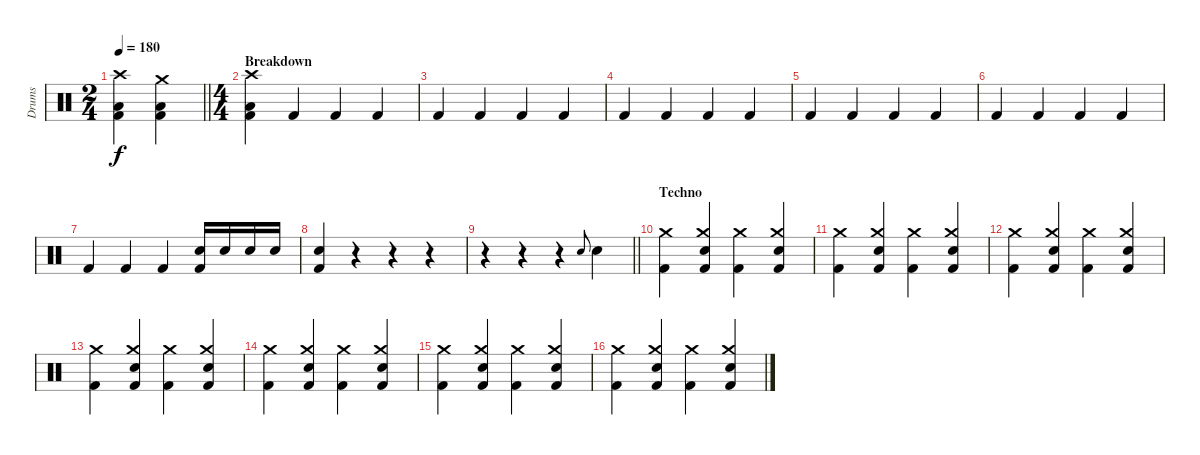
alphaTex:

\track ("Drums" "Drums") {instrument percussion}
\staff {score}
\articulation defaults
\ts (2 4)
\tempo 180
\clef neutral
\barLineRight lightlight
\ks c
("Crash high (hit)" "Low Floor Tom (hit)" "Kick (hit) 2").4{dy f} ("Crash medium (hit)" "Low Floor Tom (hit)" "Kick (hit) 2").4 |
\ts (4 4)
\section ("" "Breakdown")
("Crash high (hit)" "Low Floor Tom (hit)" "Kick (hit) 2").4 "Kick (hit) 2".4 "Kick (hit) 2".4 "Kick (hit) 2".4 |
"Kick (hit) 2".4 "Kick (hit) 2".4 "Kick (hit) 2".4 "Kick (hit) 2".4 |
"Kick (hit) 2".4 "Kick (hit) 2".4 "Kick (hit) 2".4 "Kick (hit) 2".4 |
"Kick (hit) 2".4 "Kick (hit) 2".4 "Kick (hit) 2".4 "Kick (hit) 2".4 |
"Kick (hit) 2".4 "Kick (hit) 2".4 "Kick (hit) 2".4 "Kick (hit) 2".4 |
"Kick (hit) 2".4 "Kick (hit) 2".4 "Kick (hit) 2".4 ("Snare (hit) 2" "Kick (hit) 2").16 "Snare (hit) 2".16 "Snare (hit) 2".16 "Snare (hit) 2".16 |
("Snare (hit) 2" "Kick (hit) 2").4 r.4 r.4 r.4 |
\barLineRight lightlight
r.4 r.4 r.4 "Snare (hit) 2".8{gr onbeat} "Snare (hit) 2".4 |
\section ("" "Techno")
("Crash medium (hit)" "Kick (hit) 2").4 ("Crash medium (hit)" "Snare (hit) 2" "Kick (hit) 2").4 ("Crash medium (hit)" "Kick (hit) 2").4 ("Crash medium (hit)" "Snare (hit) 2" "Kick (hit) 2").4 |
("Crash medium (hit)" "Kick (hit) 2").4 ("Crash medium (hit)" "Snare (hit) 2" "Kick (hit) 2").4 ("Crash medium (hit)" "Kick (hit) 2").4 ("Crash medium (hit)" "Snare (hit) 2" "Kick (hit) 2").4 |
("Crash medium (hit)" "Kick (hit) 2").4 ("Crash medium (hit)" "Snare (hit) 2" "Kick (hit) 2").4 ("Crash medium (hit)" "Kick (hit) 2").4 ("Crash medium (hit)" "Snare (hit) 2" "Kick (hit) 2").4 |
("Crash medium (hit)" "Kick (hit) 2").4 ("Crash medium (hit)" "Snare (hit) 2" "Kick (hit) 2").4 ("Crash medium (hit)" "Kick (hit) 2").4 ("Crash medium (hit)" "Snare (hit) 2" "Kick (hit) 2").4 |
("Crash medium (hit)" "Kick (hit) 2").4 ("Crash medium (hit)" "Snare (hit) 2" "Kick (hit) 2").4 ("Crash medium (hit)" "Kick (hit) 2").4 ("Crash medium (hit)" "Snare (hit) 2" "Kick (hit) 2").4 |
("Crash medium (hit)" "Kick (hit) 2").4 ("Crash medium (hit)" "Snare (hit) 2" "Kick (hit) 2").4 ("Crash medium (hit)" "Kick (hit) 2").4 ("Crash medium (hit)" "Snare (hit) 2" "Kick (hit) 2").4 |
("Crash medium (hit)" "Kick (hit) 2").4 ("Crash medium (hit)" "Snare (hit) 2" "Kick (hit) 2").4 ("Crash medium (hit)" "Kick (hit) 2").4 ("Crash medium (hit)" "Snare (hit) 2" "Kick (hit) 2").4
